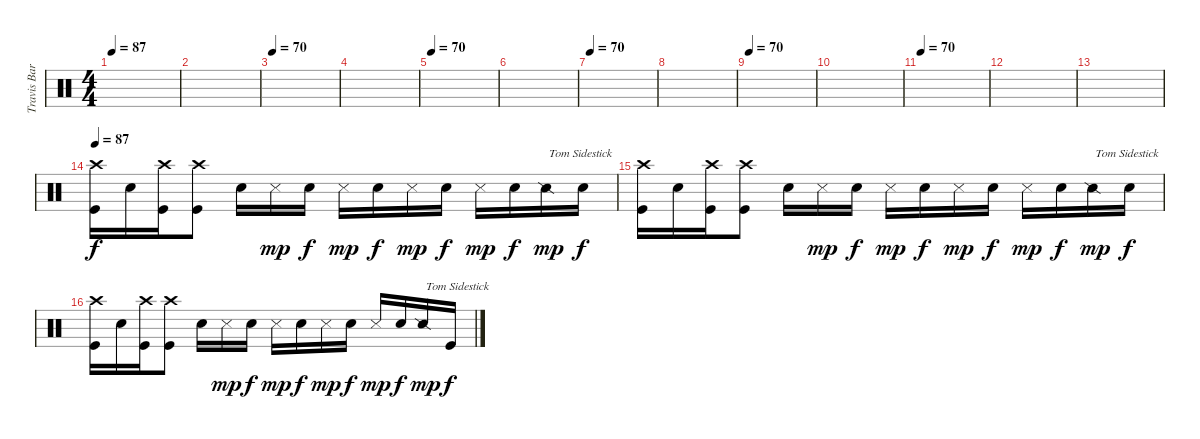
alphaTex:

\track ("Travis Barker" "Travis Bar") {instrument percussion}
\staff {score}
\articulation defaults
\ts (4 4)
\tempo 87
\tempo 70
\tempo 87
\clef neutral
\ks c
|
|
\tempo 70
|
|
\tempo 70
|
|
\tempo 70
|
|
\tempo 70
|
|
\tempo 70
|
|
|
\tempo 87
("Crash high (hit)" "Kick (hit)").16 "Electric Snare (hit)".16 ("Crash high (hit)" "Kick (hit)").16 ("Crash high (hit)" "Kick (hit)").8 "Electric Snare (hit)".16 "Snare (side stick) 3".16{dy mp} "Electric Snare (hit)".16{dy f} "Snare (side stick) 3".16{dy mp} "Electric Snare (hit)".16{dy f} "Snare (side stick) 3".16{dy mp} "Electric Snare (hit)".16{dy f} "Snare (side stick) 3".16{dy mp} "Electric Snare (hit)".16{dy f} "Snare (side stick) 2".16{txt "Tom Sidestick" dy mp} "Electric Snare (hit)".16{dy f} |
("Crash high (hit)" "Kick (hit)").16 "Electric Snare (hit)".16 ("Crash high (hit)" "Kick (hit)").16 ("Crash high (hit)" "Kick (hit)").8 "Electric Snare (hit)".16 "Snare (side stick) 3".16{dy mp} "Electric Snare (hit)".16{dy f} "Snare (side stick) 3".16{dy mp} "Electric Snare (hit)".16{dy f} "Snare (side stick) 3".16{dy mp} "Electric Snare (hit)".16{dy f} "Snare (side stick) 3".16{dy mp} "Electric Snare (hit)".16{dy f} "Snare (side stick) 2".16{txt "Tom Sidestick" dy mp} "Electric Snare (hit)".16{dy f} |
("Crash high (hit)" "Kick (hit)").16 "Electric Snare (hit)".16 ("Crash high (hit)" "Kick (hit)").16 ("Crash high (hit)" "Kick (hit)").8 "Electric Snare (hit)".16 "Snare (side stick) 3".16{dy mp} "Electric Snare (hit)".16{dy f} "Snare (side stick) 3".16{dy mp} "Electric Snare (hit)".16{dy f} "Snare (side stick) 3".16{dy mp} "Electric Snare (hit)".16{dy f} "Snare (side stick) 3".16{dy mp} "Electric Snare (hit)".16{dy f} "Snare (side stick) 2".16{txt "Tom Sidestick" dy mp} "Kick (hit)".16{dy f}
